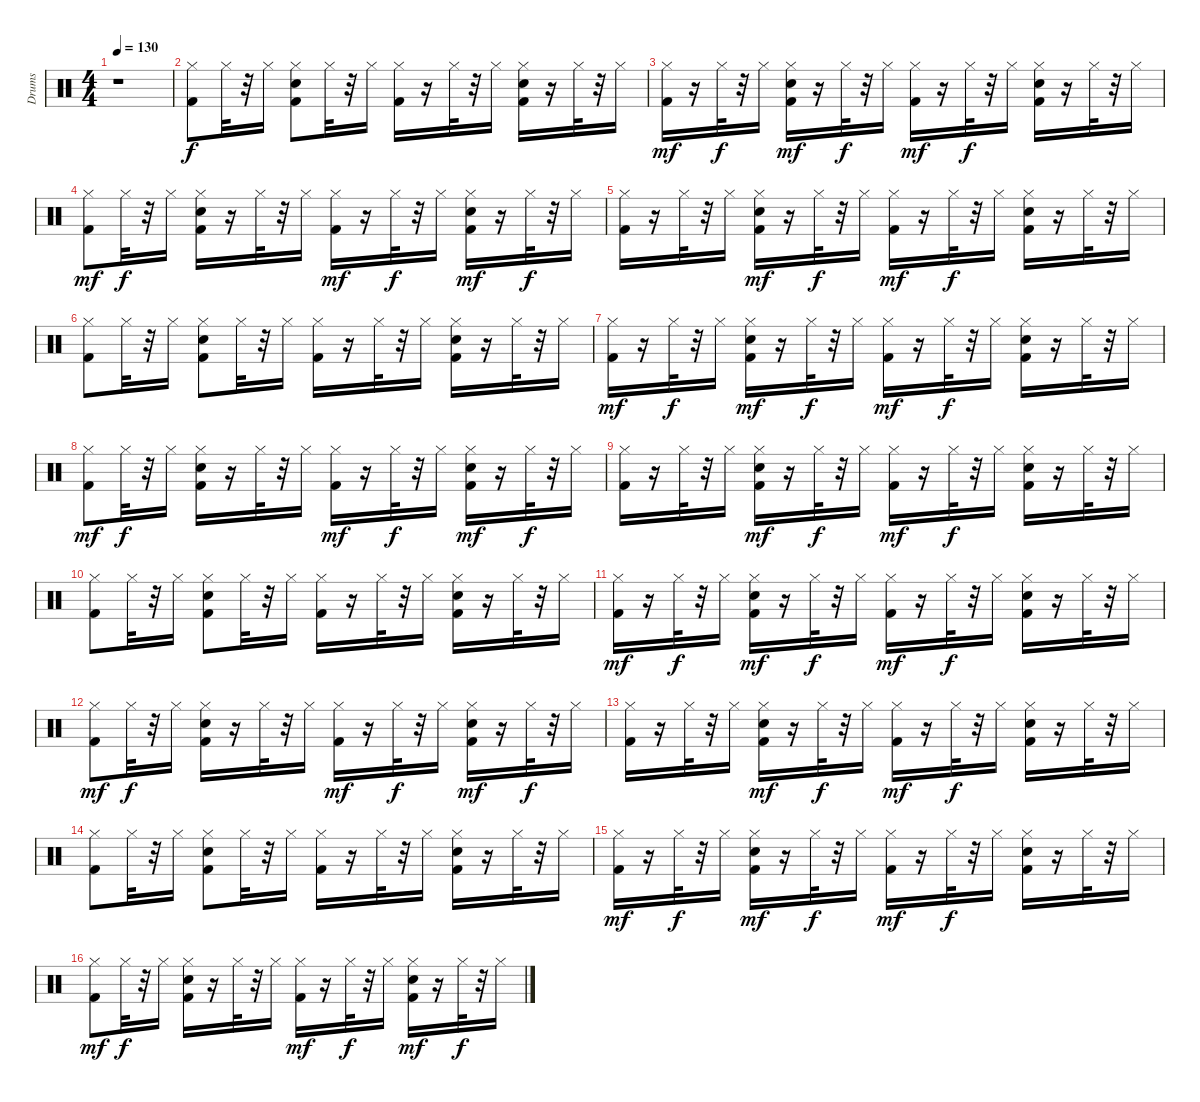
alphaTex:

\track ("Drums" "Drums") {instrument percussion}
\staff {score}
\articulation defaults
\ts (4 4)
\tempo 130
\clef neutral
\ks c
r.1{dy f} |
("Hi-Hat (closed)" "Kick (hit) 2").8 "Hi-Hat (closed)".32 r.32 "Hi-Hat (closed)".16 ("Hi-Hat (closed)" "Kick (hit) 2" "Snare (hit) 2").8 "Hi-Hat (closed)".32 r.32 "Hi-Hat (closed)".16 ("Hi-Hat (closed)" "Kick (hit) 2").16 r.16 "Hi-Hat (closed)".32 r.32 "Hi-Hat (closed)".16 ("Hi-Hat (closed)" "Snare (hit) 2" "Kick (hit) 2").16 r.16 "Hi-Hat (closed)".32 r.32 "Hi-Hat (closed)".16 |
("Kick (hit) 2" "Hi-Hat (closed)").16{dy mf} r.16 "Hi-Hat (closed)".32{dy f} r.32 "Hi-Hat (closed)".16 ("Snare (hit) 2" "Kick (hit) 2" "Hi-Hat (closed)").16{dy mf} r.16 "Hi-Hat (closed)".32{dy f} r.32 "Hi-Hat (closed)".16 ("Kick (hit) 2" "Hi-Hat (closed)").16{dy mf} r.16 "Hi-Hat (closed)".32{dy f} r.32 "Hi-Hat (closed)".16 ("Snare (hit) 2" "Kick (hit) 2" "Hi-Hat (closed)").16 r.16 "Hi-Hat (closed)".32 r.32 "Hi-Hat (closed)".16 |
("Kick (hit) 2" "Hi-Hat (closed)").8{dy mf} "Hi-Hat (closed)".32{dy f} r.32 "Hi-Hat (closed)".16 ("Snare (hit) 2" "Kick (hit) 2" "Hi-Hat (closed)").16 r.16 "Hi-Hat (closed)".32 r.32 "Hi-Hat (closed)".16 ("Kick (hit) 2" "Hi-Hat (closed)").16{dy mf} r.16 "Hi-Hat (closed)".32{dy f} r.32 "Hi-Hat (closed)".16 ("Snare (hit) 2" "Kick (hit) 2" "Hi-Hat (closed)").16{dy mf} r.16 "Hi-Hat (closed)".32{dy f} r.32 "Hi-Hat (closed)".16 |
("Kick (hit) 2" "Hi-Hat (closed)").16 r.16 "Hi-Hat (closed)".32 r.32 "Hi-Hat (closed)".16 ("Kick (hit) 2" "Snare (hit) 2" "Hi-Hat (closed)").16{dy mf} r.16 "Hi-Hat (closed)".32{dy f} r.32 "Hi-Hat (closed)".16 ("Kick (hit) 2" "Hi-Hat (closed)").16{dy mf} r.16 "Hi-Hat (closed)".32{dy f} r.32 "Hi-Hat (closed)".16 ("Snare (hit) 2" "Kick (hit) 2" "Hi-Hat (closed)").16 r.16 "Hi-Hat (closed)".32 r.32 "Hi-Hat (closed)".16 |
("Hi-Hat (closed)" "Kick (hit) 2").8 "Hi-Hat (closed)".32 r.32 "Hi-Hat (closed)".16 ("Hi-Hat (closed)" "Kick (hit) 2" "Snare (hit) 2").8 "Hi-Hat (closed)".32 r.32 "Hi-Hat (closed)".16 ("Hi-Hat (closed)" "Kick (hit) 2").16 r.16 "Hi-Hat (closed)".32 r.32 "Hi-Hat (closed)".16 ("Hi-Hat (closed)" "Snare (hit) 2" "Kick (hit) 2").16 r.16 "Hi-Hat (closed)".32 r.32 "Hi-Hat (closed)".16 |
("Kick (hit) 2" "Hi-Hat (closed)").16{dy mf} r.16 "Hi-Hat (closed)".32{dy f} r.32 "Hi-Hat (closed)".16 ("Snare (hit) 2" "Kick (hit) 2" "Hi-Hat (closed)").16{dy mf} r.16 "Hi-Hat (closed)".32{dy f} r.32 "Hi-Hat (closed)".16 ("Kick (hit) 2" "Hi-Hat (closed)").16{dy mf} r.16 "Hi-Hat (closed)".32{dy f} r.32 "Hi-Hat (closed)".16 ("Snare (hit) 2" "Kick (hit) 2" "Hi-Hat (closed)").16 r.16 "Hi-Hat (closed)".32 r.32 "Hi-Hat (closed)".16 |
("Kick (hit) 2" "Hi-Hat (closed)").8{dy mf} "Hi-Hat (closed)".32{dy f} r.32 "Hi-Hat (closed)".16 ("Snare (hit) 2" "Kick (hit) 2" "Hi-Hat (closed)").16 r.16 "Hi-Hat (closed)".32 r.32 "Hi-Hat (closed)".16 ("Kick (hit) 2" "Hi-Hat (closed)").16{dy mf} r.16 "Hi-Hat (closed)".32{dy f} r.32 "Hi-Hat (closed)".16 ("Snare (hit) 2" "Kick (hit) 2" "Hi-Hat (closed)").16{dy mf} r.16 "Hi-Hat (closed)".32{dy f} r.32 "Hi-Hat (closed)".16 |
("Kick (hit) 2" "Hi-Hat (closed)").16 r.16 "Hi-Hat (closed)".32 r.32 "Hi-Hat (closed)".16 ("Kick (hit) 2" "Snare (hit) 2" "Hi-Hat (closed)").16{dy mf} r.16 "Hi-Hat (closed)".32{dy f} r.32 "Hi-Hat (closed)".16 ("Kick (hit) 2" "Hi-Hat (closed)").16{dy mf} r.16 "Hi-Hat (closed)".32{dy f} r.32 "Hi-Hat (closed)".16 ("Snare (hit) 2" "Kick (hit) 2" "Hi-Hat (closed)").16 r.16 "Hi-Hat (closed)".32 r.32 "Hi-Hat (closed)".16 |
("Hi-Hat (closed)" "Kick (hit) 2").8 "Hi-Hat (closed)".32 r.32 "Hi-Hat (closed)".16 ("Hi-Hat (closed)" "Kick (hit) 2" "Snare (hit) 2").8 "Hi-Hat (closed)".32 r.32 "Hi-Hat (closed)".16 ("Hi-Hat (closed)" "Kick (hit) 2").16 r.16 "Hi-Hat (closed)".32 r.32 "Hi-Hat (closed)".16 ("Hi-Hat (closed)" "Snare (hit) 2" "Kick (hit) 2").16 r.16 "Hi-Hat (closed)".32 r.32 "Hi-Hat (closed)".16 |
("Kick (hit) 2" "Hi-Hat (closed)").16{dy mf} r.16 "Hi-Hat (closed)".32{dy f} r.32 "Hi-Hat (closed)".16 ("Snare (hit) 2" "Kick (hit) 2" "Hi-Hat (closed)").16{dy mf} r.16 "Hi-Hat (closed)".32{dy f} r.32 "Hi-Hat (closed)".16 ("Kick (hit) 2" "Hi-Hat (closed)").16{dy mf} r.16 "Hi-Hat (closed)".32{dy f} r.32 "Hi-Hat (closed)".16 ("Snare (hit) 2" "Kick (hit) 2" "Hi-Hat (closed)").16 r.16 "Hi-Hat (closed)".32 r.32 "Hi-Hat (closed)".16 |
("Kick (hit) 2" "Hi-Hat (closed)").8{dy mf} "Hi-Hat (closed)".32{dy f} r.32 "Hi-Hat (closed)".16 ("Snare (hit) 2" "Kick (hit) 2" "Hi-Hat (closed)").16 r.16 "Hi-Hat (closed)".32 r.32 "Hi-Hat (closed)".16 ("Kick (hit) 2" "Hi-Hat (closed)").16{dy mf} r.16 "Hi-Hat (closed)".32{dy f} r.32 "Hi-Hat (closed)".16 ("Snare (hit) 2" "Kick (hit) 2" "Hi-Hat (closed)").16{dy mf} r.16 "Hi-Hat (closed)".32{dy f} r.32 "Hi-Hat (closed)".16 |
("Kick (hit) 2" "Hi-Hat (closed)").16 r.16 "Hi-Hat (closed)".32 r.32 "Hi-Hat (closed)".16 ("Kick (hit) 2" "Snare (hit) 2" "Hi-Hat (closed)").16{dy mf} r.16 "Hi-Hat (closed)".32{dy f} r.32 "Hi-Hat (closed)".16 ("Kick (hit) 2" "Hi-Hat (closed)").16{dy mf} r.16 "Hi-Hat (closed)".32{dy f} r.32 "Hi-Hat (closed)".16 ("Snare (hit) 2" "Kick (hit) 2" "Hi-Hat (closed)").16 r.16 "Hi-Hat (closed)".32 r.32 "Hi-Hat (closed)".16 |
("Hi-Hat (closed)" "Kick (hit) 2").8 "Hi-Hat (closed)".32 r.32 "Hi-Hat (closed)".16 ("Hi-Hat (closed)" "Kick (hit) 2" "Snare (hit) 2").8 "Hi-Hat (closed)".32 r.32 "Hi-Hat (closed)".16 ("Hi-Hat (closed)" "Kick (hit) 2").16 r.16 "Hi-Hat (closed)".32 r.32 "Hi-Hat (closed)".16 ("Hi-Hat (closed)" "Snare (hit) 2" "Kick (hit) 2").16 r.16 "Hi-Hat (closed)".32 r.32 "Hi-Hat (closed)".16 |
("Kick (hit) 2" "Hi-Hat (closed)").16{dy mf} r.16 "Hi-Hat (closed)".32{dy f} r.32 "Hi-Hat (closed)".16 ("Snare (hit) 2" "Kick (hit) 2" "Hi-Hat (closed)").16{dy mf} r.16 "Hi-Hat (closed)".32{dy f} r.32 "Hi-Hat (closed)".16 ("Kick (hit) 2" "Hi-Hat (closed)").16{dy mf} r.16 "Hi-Hat (closed)".32{dy f} r.32 "Hi-Hat (closed)".16 ("Snare (hit) 2" "Kick (hit) 2" "Hi-Hat (closed)").16 r.16 "Hi-Hat (closed)".32 r.32 "Hi-Hat (closed)".16 |
("Kick (hit) 2" "Hi-Hat (closed)").8{dy mf} "Hi-Hat (closed)".32{dy f} r.32 "Hi-Hat (closed)".16 ("Snare (hit) 2" "Kick (hit) 2" "Hi-Hat (closed)").16 r.16 "Hi-Hat (closed)".32 r.32 "Hi-Hat (closed)".16 ("Kick (hit) 2" "Hi-Hat (closed)").16{dy mf} r.16 "Hi-Hat (closed)".32{dy f} r.32 "Hi-Hat (closed)".16 ("Snare (hit) 2" "Kick (hit) 2" "Hi-Hat (closed)").16{dy mf} r.16 "Hi-Hat (closed)".32{dy f} r.32 "Hi-Hat (closed)".16
